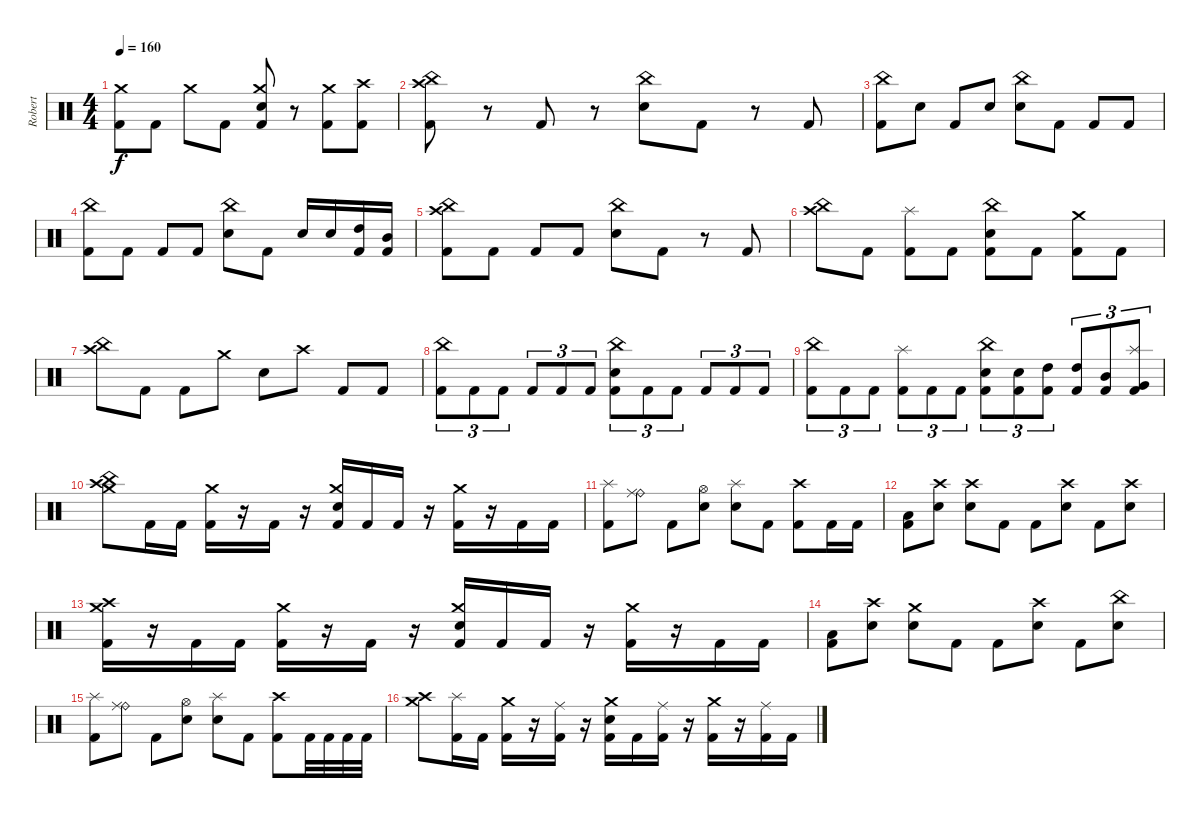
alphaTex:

\track ("Robert" "Robert") {instrument percussion}
\staff {score}
\articulation defaults
\ts (4 4)
\tempo 160
\clef neutral
\ks c
("Kick (hit) 2" "Crash medium (hit)").8{dy f} "Kick (hit) 2".8 "Crash medium (hit)".8 "Kick (hit) 2".8 ("Kick (hit) 2" "Electric Snare (hit)" "Crash medium (hit)").8 r.8 ("Kick (hit) 2" "Crash medium (hit)").8 ("Kick (hit) 2" "Crash high (hit)").8 |
("China (hit)" "Kick (hit) 2" "Crash high (hit)").8 r.8 "Kick (hit) 2".8 r.8 ("Electric Snare (hit)" "China (hit)").8 "Kick (hit) 2".8 r.8 "Kick (hit) 2".8 |
("Kick (hit) 2" "China (hit)").8 "Electric Snare (hit)".8 "Kick (hit) 2".8 "Electric Snare (hit)".8 ("China (hit)" "Electric Snare (hit)").8 "Kick (hit) 2".8 "Kick (hit) 2".8 "Kick (hit) 2".8 |
("China (hit)" "Kick (hit) 2").8 "Kick (hit) 2".8 "Kick (hit) 2".8 "Kick (hit) 2".8 ("China (hit)" "Electric Snare (hit)").8 "Kick (hit) 2".8 "Electric Snare (hit)".16 "Electric Snare (hit)".16 ("High Tom (hit)" "Kick (hit) 2").16 ("Mid Tom (hit)" "Kick (hit) 2").16 |
("Crash high (hit)" "Kick (hit) 2" "China (hit)").8 "Kick (hit) 2".8 "Kick (hit) 2".8 "Kick (hit) 2".8 ("China (hit)" "Electric Snare (hit)").8 "Kick (hit) 2".8 r.8 "Kick (hit) 2".8 |
("China (hit)" "Crash high (hit)").8 "Kick (hit) 2".8 ("Kick (hit) 2" "Splash (hit)").8 "Kick (hit) 2".8 ("Kick (hit) 2" "Electric Snare (hit)" "China (hit)").8 "Kick (hit) 2".8 ("Kick (hit) 2" "Crash medium (hit)").8 "Kick (hit) 2".8 |
("China (hit)" "Crash high (hit)").8 "Kick (hit) 2".8 "Kick (hit) 2".8 "Crash medium (hit)".8 "Electric Snare (hit)".8 "Crash high (hit)".8 "Kick (hit) 2".8 "Kick (hit) 2".8 |
("Kick (hit) 2" "China (hit)").8{tu (3 2)} "Kick (hit) 2".8{tu (3 2)} "Kick (hit) 2".8{tu (3 2)} "Kick (hit) 2".8{tu (3 2)} "Kick (hit) 2".8{tu (3 2)} "Kick (hit) 2".8{tu (3 2)} ("Kick (hit) 2" "China (hit)" "Electric Snare (hit)").8{tu (3 2)} "Kick (hit) 2".8{tu (3 2)} "Kick (hit) 2".8{tu (3 2)} "Kick (hit) 2".8{tu (3 2)} "Kick (hit) 2".8{tu (3 2)} "Kick (hit) 2".8{tu (3 2)} |
("Kick (hit) 2" "China (hit)").8{tu (3 2)} "Kick (hit) 2".8{tu (3 2)} "Kick (hit) 2".8{tu (3 2)} ("Kick (hit) 2" "Splash (hit)").8{tu (3 2)} "Kick (hit) 2".8{tu (3 2)} "Kick (hit) 2".8{tu (3 2)} ("Kick (hit) 2" "China (hit)" "Electric Snare (hit)").8{tu (3 2)} ("Kick (hit) 2" "Electric Snare (hit)").8{tu (3 2)} ("Kick (hit) 2" "High Tom (hit)").8{tu (3 2)} ("Kick (hit) 2" "High Tom (hit)").8{tu (3 2)} ("Kick (hit) 2" "Mid Tom (hit)").8{tu (3 2)} ("Splash (hit)" "Kick (hit) 2" "Very Low Tom (hit)").8{tu (3 2)} |
("Crash high (hit)" "China (hit)" "Crash medium (hit)").8 "Kick (hit) 2".16 "Kick (hit) 2".16 ("Crash medium (hit)" "Kick (hit) 2").16 r.16 "Kick (hit) 2".16 r.16 ("Crash medium (hit)" "Electric Snare (hit)" "Kick (hit) 2").16 "Kick (hit) 2".16 "Kick (hit) 2".16 r.16 ("Crash medium (hit)" "Kick (hit) 2").16 r.16 "Kick (hit) 2".16 "Kick (hit) 2".16 |
("Kick (hit) 2" "Splash (hit)").8 ("Ride (bell)" "Ride (middle)").8 "Kick (hit) 2".8 ("Hi-Hat (open)" "Electric Snare (hit)").8 ("Splash (hit)" "Electric Snare (hit)").8 "Kick (hit) 2".8 ("Crash high (hit)" "Kick (hit) 2").8 "Kick (hit) 2".16 "Kick (hit) 2".16 |
("Low Tom (hit)" "Kick (hit) 2").8 ("Electric Snare (hit)" "Crash high (hit)").8 ("Electric Snare (hit)" "Crash high (hit)").8 "Kick (hit) 2".8 "Kick (hit) 2".8 ("Electric Snare (hit)" "Crash high (hit)").8 "Kick (hit) 2".8 ("Crash high (hit)" "Electric Snare (hit)").8 |
("Crash medium (hit)" "Crash high (hit)" "Kick (hit) 2").16 r.16 "Kick (hit) 2".16 "Kick (hit) 2".16 ("Crash medium (hit)" "Kick (hit) 2").16 r.16 "Kick (hit) 2".16 r.16 ("Crash medium (hit)" "Electric Snare (hit)" "Kick (hit) 2").16 "Kick (hit) 2".16 "Kick (hit) 2".16 r.16 ("Crash medium (hit)" "Kick (hit) 2").16 r.16 "Kick (hit) 2".16 "Kick (hit) 2".16 |
("Low Tom (hit)" "Kick (hit) 2").8 ("Electric Snare (hit)" "Crash high (hit)").8 ("Electric Snare (hit)" "Crash medium (hit)").8 "Kick (hit) 2".8 "Kick (hit) 2".8 ("Electric Snare (hit)" "Crash high (hit)").8 "Kick (hit) 2".8 ("China (hit)" "Electric Snare (hit)").8 |
("Kick (hit) 2" "Splash (hit)").8 ("Ride (bell)" "Ride (middle)").8 "Kick (hit) 2".8 ("Hi-Hat (open)" "Electric Snare (hit)").8 ("Splash (hit)" "Electric Snare (hit)").8 "Kick (hit) 2".8 ("Crash high (hit)" "Kick (hit) 2").8 "Kick (hit) 2".32 "Kick (hit) 2".32 "Kick (hit) 2".32 "Kick (hit) 2".32 |
("Crash high (hit)" "Crash medium (hit)").8 ("Splash (hit)" "Kick (hit) 2").16 "Kick (hit) 2".16 ("Crash medium (hit)" "Kick (hit) 2").16 r.16 ("Ride (middle)" "Kick (hit) 2").16 r.16 ("Crash medium (hit)" "Electric Snare (hit)" "Kick (hit) 2").16 "Kick (hit) 2".16 ("Ride (middle)" "Kick (hit) 2").16 r.16 ("Crash medium (hit)" "Kick (hit) 2").16 r.16 ("Ride (middle)" "Kick (hit) 2").16 "Kick (hit) 2".16
